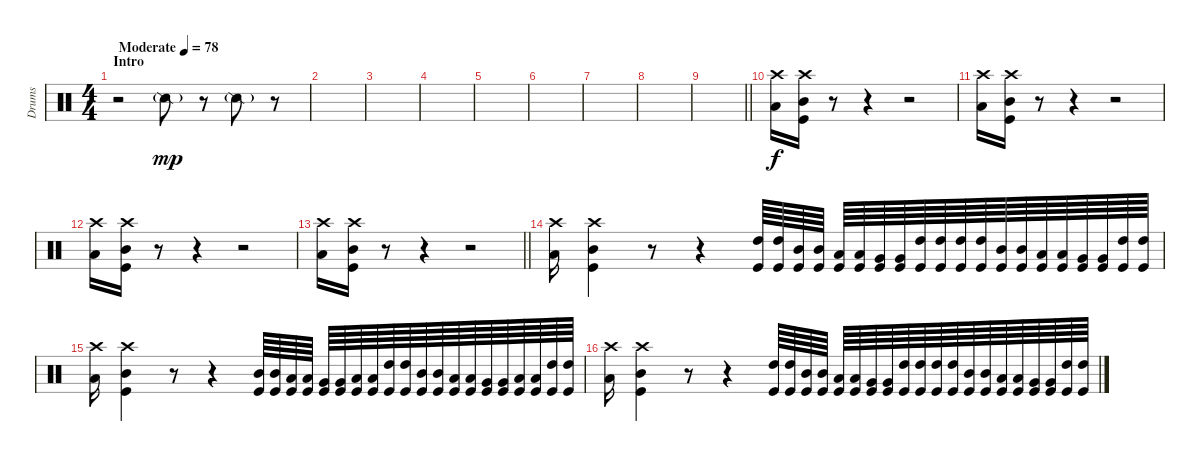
\track ("Drums" "Drums") {instrument percussion}
\staff {score}
\articulation defaults
\ts (4 4)
\section ("" "Intro")
\tempo (78 "Moderate")
\clef neutral
\ks c
r.2{dy mp} "Snare (side stick) 2"{g}.8 r.8 "Snare (side stick) 2"{g}.8 r.8 |
|
|
|
|
|
|
|
\barLineRight lightlight
|
("Low Tom (hit)" "Crash high (hit)").16{dy f} ("Kick (hit)" "Mid Tom (hit)" "Crash high (hit)").16 r.8 r.4 r.2 |
("Low Tom (hit)" "Crash high (hit)").16 ("Kick (hit)" "Mid Tom (hit)" "Crash high (hit)").16 r.8 r.4 r.2 |
("Low Tom (hit)" "Crash high (hit)").16 ("Kick (hit)" "Mid Tom (hit)" "Crash high (hit)").16 r.8 r.4 r.2 |
\barLineRight lightlight
("Low Tom (hit)" "Crash high (hit)").16 ("Kick (hit)" "Mid Tom (hit)" "Crash high (hit)").16 r.8 r.4 r.2 |
("Low Tom (hit)" "Crash high (hit)").16 ("Kick (hit)" "Mid Tom (hit)" "Crash high (hit)").4 r.8 r.4 ("Kick (hit)" "High Tom (hit)").64 ("Kick (hit)" "High Tom (hit)").64 ("Kick (hit)" "Mid Tom (hit)").64 ("Kick (hit)" "Mid Tom (hit)").64 ("Kick (hit)" "Low Tom (hit)").64 ("Kick (hit)" "Low Tom (hit)").64 ("Kick (hit)" "Very Low Tom (hit)").64 ("Kick (hit)" "Very Low Tom (hit)").64 ("Kick (hit)" "High Tom (hit)").64 ("Kick (hit)" "High Tom (hit)").64 ("Kick (hit)" "High Tom (hit)").64 ("Kick (hit)" "High Tom (hit)").64 ("Kick (hit)" "Mid Tom (hit)").64 ("Kick (hit)" "Mid Tom (hit)").64 ("Kick (hit)" "Low Tom (hit)").64 ("Kick (hit)" "Low Tom (hit)").64 ("Kick (hit)" "Very Low Tom (hit)").64 ("Kick (hit)" "Very Low Tom (hit)").64 ("Kick (hit)" "High Tom (hit)").64 ("Kick (hit)" "High Tom (hit)").64 |
("Low Tom (hit)" "Crash high (hit)").16 ("Kick (hit)" "Mid Tom (hit)" "Crash high (hit)").4 r.8 r.4 ("Kick (hit)" "Mid Tom (hit)").64 ("Kick (hit)" "Mid Tom (hit)").64 ("Kick (hit)" "Low Tom (hit)").64 ("Kick (hit)" "Low Tom (hit)").64 ("Kick (hit)" "Very Low Tom (hit)").64 ("Kick (hit)" "Very Low Tom (hit)").64 ("Kick (hit)" "Low Floor Tom (hit)").64 ("Kick (hit)" "Low Floor Tom (hit)").64 ("Kick (hit)" "High Tom (hit)").64 ("Kick (hit)" "High Tom (hit)").64 ("Kick (hit)" "Mid Tom (hit)").64 ("Kick (hit)" "Mid Tom (hit)").64 ("Kick (hit)" "Low Tom (hit)").64 ("Kick (hit)" "Low Tom (hit)").64 ("Kick (hit)" "Very Low Tom (hit)").64 ("Kick (hit)" "Very Low Tom (hit)").64 ("Kick (hit)" "Low Floor Tom (hit)").64 ("Kick (hit)" "Low Floor Tom (hit)").64 ("Kick (hit)" "High Tom (hit)").64 ("Kick (hit)" "High Tom (hit)").64 |
("Low Tom (hit)" "Crash high (hit)").16 ("Kick (hit)" "Mid Tom (hit)" "Crash high (hit)").4 r.8 r.4 ("Kick (hit)" "High Tom (hit)").64 ("Kick (hit)" "High Tom (hit)").64 ("Kick (hit)" "Mid Tom (hit)").64 ("Kick (hit)" "Mid Tom (hit)").64 ("Kick (hit)" "Low Tom (hit)").64 ("Kick (hit)" "Low Tom (hit)").64 ("Kick (hit)" "Very Low Tom (hit)").64 ("Kick (hit)" "Very Low Tom (hit)").64 ("Kick (hit)" "High Tom (hit)").64 ("Kick (hit)" "High Tom (hit)").64 ("Kick (hit)" "High Tom (hit)").64 ("Kick (hit)" "High Tom (hit)").64 ("Kick (hit)" "Mid Tom (hit)").64 ("Kick (hit)" "Mid Tom (hit)").64 ("Kick (hit)" "Low Tom (hit)").64 ("Kick (hit)" "Low Tom (hit)").64 ("Kick (hit)" "Very Low Tom (hit)").64 ("Kick (hit)" "Very Low Tom (hit)").64 ("Kick (hit)" "High Tom (hit)").64 ("Kick (hit)" "High Tom (hit)").64
